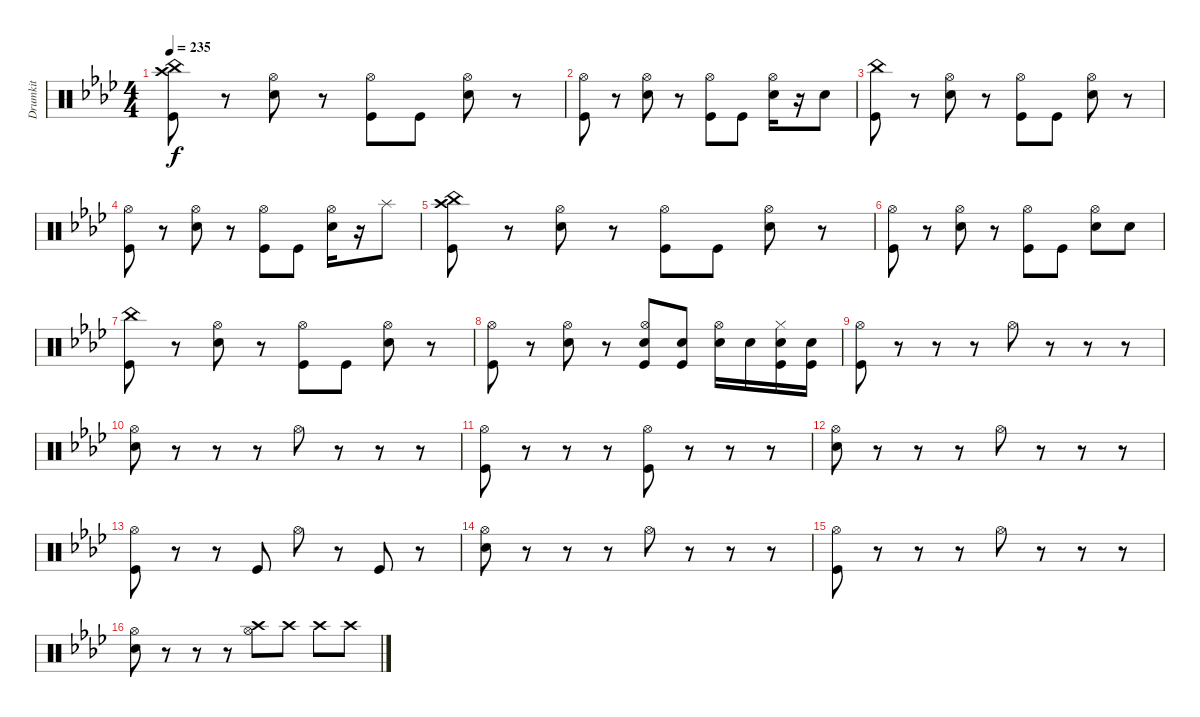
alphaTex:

\track ("Drumkit" "Drumkit") {instrument percussion}
\staff {score}
\articulation defaults
\ts (4 4)
\tempo 235
\clef neutral
\ks ab
("Crash high (hit)" "China (hit)" "Kick (hit)").8{dy f} r.8 ("Hi-Hat (open)" "Electric Snare (hit)").8 r.8 ("Hi-Hat (open)" "Kick (hit)").8 "Kick (hit)".8 ("Hi-Hat (open)" "Electric Snare (hit)").8 r.8 |
("Hi-Hat (open)" "Kick (hit)").8 r.8 ("Hi-Hat (open)" "Electric Snare (hit)").8 r.8 ("Hi-Hat (open)" "Kick (hit)").8 "Kick (hit)".8 ("Hi-Hat (open)" "Electric Snare (hit)").16 r.16 "Electric Snare (hit)".8 |
("China (hit)" "Kick (hit)").8 r.8 ("Hi-Hat (open)" "Electric Snare (hit)").8 r.8 ("Hi-Hat (open)" "Kick (hit)").8 "Kick (hit)".8 ("Hi-Hat (open)" "Electric Snare (hit)").8 r.8 |
("Hi-Hat (open)" "Kick (hit)").8 r.8 ("Hi-Hat (open)" "Electric Snare (hit)").8 r.8 ("Hi-Hat (open)" "Kick (hit)").8 "Kick (hit)".8 ("Hi-Hat (open)" "Electric Snare (hit)").16 r.16 "Splash (hit)".8 |
("Crash high (hit)" "China (hit)" "Kick (hit)").8 r.8 ("Hi-Hat (open)" "Electric Snare (hit)").8 r.8 ("Hi-Hat (open)" "Kick (hit)").8 "Kick (hit)".8 ("Hi-Hat (open)" "Electric Snare (hit)").8 r.8 |
("Hi-Hat (open)" "Kick (hit)").8 r.8 ("Hi-Hat (open)" "Electric Snare (hit)").8 r.8 ("Hi-Hat (open)" "Kick (hit)").8 "Kick (hit)".8 ("Hi-Hat (open)" "Electric Snare (hit)").8 "Electric Snare (hit)".8 |
("China (hit)" "Kick (hit)").8 r.8 ("Hi-Hat (open)" "Electric Snare (hit)").8 r.8 ("Hi-Hat (open)" "Kick (hit)").8 "Kick (hit)".8 ("Hi-Hat (open)" "Electric Snare (hit)").8 r.8 |
("Hi-Hat (open)" "Kick (hit)").8 r.8 ("Hi-Hat (open)" "Electric Snare (hit)").8 r.8 ("Hi-Hat (open)" "Electric Snare (hit)" "Kick (hit)").8 ("Electric Snare (hit)" "Kick (hit)").8 ("Hi-Hat (open)" "Electric Snare (hit)").16 "Electric Snare (hit)".16 ("Hi-Hat (closed)" "Electric Snare (hit)" "Kick (hit)").16 ("Electric Snare (hit)" "Kick (hit)").16 |
("Hi-Hat (open)" "Kick (hit)").8 r.8 r.8 r.8 "Hi-Hat (open)".8 r.8 r.8 r.8 |
("Hi-Hat (open)" "Electric Snare (hit)").8 r.8 r.8 r.8 "Hi-Hat (open)".8 r.8 r.8 r.8 |
("Hi-Hat (open)" "Kick (hit)").8 r.8 r.8 r.8 ("Hi-Hat (open)" "Kick (hit)").8 r.8 r.8 r.8 |
("Hi-Hat (open)" "Electric Snare (hit)").8 r.8 r.8 r.8 "Hi-Hat (open)".8 r.8 r.8 r.8 |
("Hi-Hat (open)" "Kick (hit)").8 r.8 r.8 "Kick (hit)".8 "Hi-Hat (open)".8 r.8 "Kick (hit)".8 r.8 |
("Hi-Hat (open)" "Electric Snare (hit)").8 r.8 r.8 r.8 "Hi-Hat (open)".8 r.8 r.8 r.8 |
("Hi-Hat (open)" "Kick (hit)").8 r.8 r.8 r.8 "Hi-Hat (open)".8 r.8 r.8 r.8 |
("Hi-Hat (open)" "Electric Snare (hit)").8 r.8 r.8 r.8 ("Crash high (hit)" "Hi-Hat (open)").8 "Crash high (hit)".8 "Crash high (hit)".8 "Crash high (hit)".8
